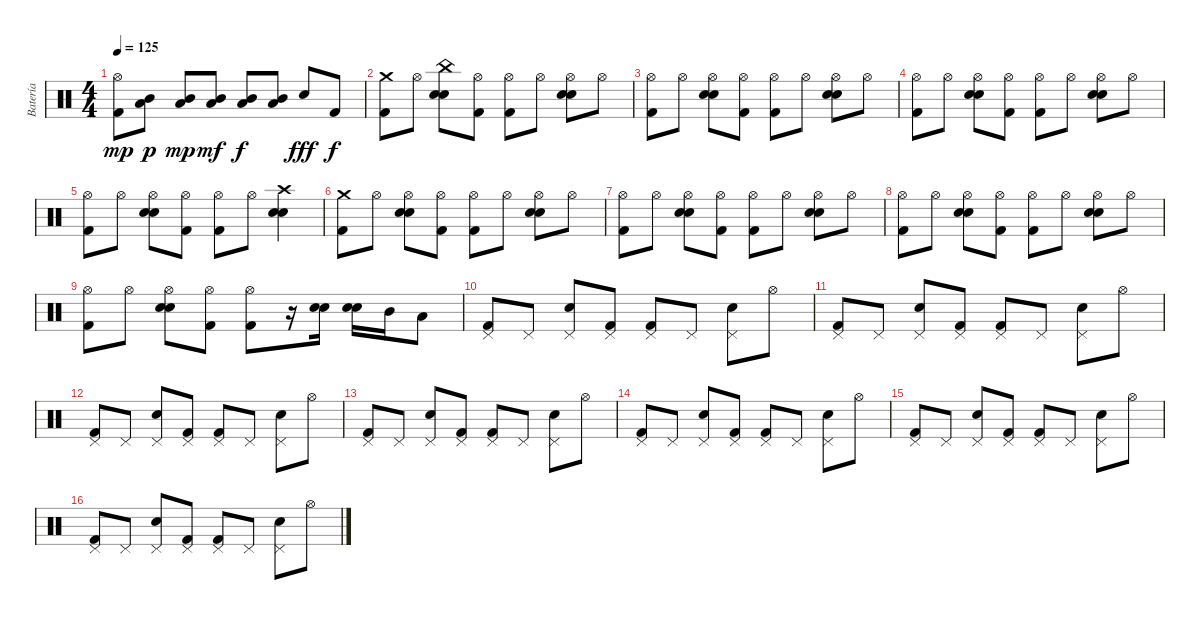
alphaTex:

\track ("Batería" "Batería") {instrument percussion}
\staff {score}
\articulation defaults
\ts (4 4)
\tempo 125
\clef neutral
\ks c
("Kick (hit) 2" "Hi-Hat (open)").8{dy mp} ("Low Tom (hit)" "Mid Tom (hit)").8{dy p} ("Low Tom (hit)" "Mid Tom (hit)").8{dy mp} ("Low Tom (hit)" "Mid Tom (hit)").8{dy mf} ("Low Tom (hit)" "Mid Tom (hit)").8{dy f} ("Low Tom (hit)" "Mid Tom (hit)").8 "Electric Snare (hit)".8{dy fff} "Kick (hit) 2".8{dy f} |
("Kick (hit) 2" "Crash medium (hit)").8 "Hi-Hat (open)".8 ("Electric Snare (hit)" "China (hit)" "Snare (hit) 2").8 ("Kick (hit) 2" "Hi-Hat (open)").8 ("Kick (hit) 2" "Hi-Hat (open)").8 "Hi-Hat (open)".8 ("Electric Snare (hit)" "Hi-Hat (open)" "Snare (hit) 2").8 "Hi-Hat (open)".8 |
("Kick (hit) 2" "Hi-Hat (open)").8 "Hi-Hat (open)".8 ("Electric Snare (hit)" "Hi-Hat (open)" "Snare (hit) 2").8 ("Kick (hit) 2" "Hi-Hat (open)").8 ("Kick (hit) 2" "Hi-Hat (open)").8 "Hi-Hat (open)".8 ("Electric Snare (hit)" "Hi-Hat (open)" "Snare (hit) 2").8 "Hi-Hat (open)".8 |
("Kick (hit) 2" "Hi-Hat (open)").8 "Hi-Hat (open)".8 ("Electric Snare (hit)" "Hi-Hat (open)" "Snare (hit) 2").8 ("Kick (hit) 2" "Hi-Hat (open)").8 ("Kick (hit) 2" "Hi-Hat (open)").8 "Hi-Hat (open)".8 ("Electric Snare (hit)" "Hi-Hat (open)" "Snare (hit) 2").8 "Hi-Hat (open)".8 |
("Kick (hit) 2" "Hi-Hat (open)").8 "Hi-Hat (open)".8 ("Electric Snare (hit)" "Hi-Hat (open)" "Snare (hit) 2").8 ("Kick (hit) 2" "Hi-Hat (open)").8 ("Kick (hit) 2" "Hi-Hat (open)").8 "Hi-Hat (open)".8 ("Snare (hit) 2" "Electric Snare (hit)" "Crash high (hit)").4 |
("Kick (hit) 2" "Crash medium (hit)").8 "Hi-Hat (open)".8 ("Electric Snare (hit)" "Hi-Hat (open)" "Snare (hit) 2").8 ("Kick (hit) 2" "Hi-Hat (open)").8 ("Kick (hit) 2" "Hi-Hat (open)").8 "Hi-Hat (open)".8 ("Electric Snare (hit)" "Hi-Hat (open)" "Snare (hit) 2").8 "Hi-Hat (open)".8 |
("Kick (hit) 2" "Hi-Hat (open)").8 "Hi-Hat (open)".8 ("Electric Snare (hit)" "Hi-Hat (open)" "Snare (hit) 2").8 ("Kick (hit) 2" "Hi-Hat (open)").8 ("Kick (hit) 2" "Hi-Hat (open)").8 "Hi-Hat (open)".8 ("Electric Snare (hit)" "Hi-Hat (open)" "Snare (hit) 2").8 "Hi-Hat (open)".8 |
("Kick (hit) 2" "Hi-Hat (open)").8 "Hi-Hat (open)".8 ("Electric Snare (hit)" "Hi-Hat (open)" "Snare (hit) 2").8 ("Kick (hit) 2" "Hi-Hat (open)").8 ("Kick (hit) 2" "Hi-Hat (open)").8 "Hi-Hat (open)".8 ("Electric Snare (hit)" "Hi-Hat (open)" "Snare (hit) 2").8 "Hi-Hat (open)".8 |
("Kick (hit) 2" "Hi-Hat (open)").8 "Hi-Hat (open)".8 ("Electric Snare (hit)" "Hi-Hat (open)" "Snare (hit) 2").8 ("Kick (hit) 2" "Hi-Hat (open)").8 ("Kick (hit) 2" "Hi-Hat (open)").8 r.16 ("Electric Snare (hit)" "Snare (hit) 2").16 ("Electric Snare (hit)" "Snare (hit) 2").16 "Mid Tom (hit)".16 "Low Tom (hit)".8 |
("Kick (hit) 2" "Pedal Hi-Hat (hit)").8 "Pedal Hi-Hat (hit)".8 ("Electric Snare (hit)" "Pedal Hi-Hat (hit)").8 ("Kick (hit) 2" "Pedal Hi-Hat (hit)").8 ("Kick (hit) 2" "Pedal Hi-Hat (hit)").8 "Pedal Hi-Hat (hit)".8 ("Electric Snare (hit)" "Pedal Hi-Hat (hit)").8 "Hi-Hat (open)".8 |
("Kick (hit) 2" "Pedal Hi-Hat (hit)").8 "Pedal Hi-Hat (hit)".8 ("Electric Snare (hit)" "Pedal Hi-Hat (hit)").8 ("Kick (hit) 2" "Pedal Hi-Hat (hit)").8 ("Kick (hit) 2" "Pedal Hi-Hat (hit)").8 "Pedal Hi-Hat (hit)".8 ("Electric Snare (hit)" "Pedal Hi-Hat (hit)").8 "Hi-Hat (open)".8 |
("Kick (hit) 2" "Pedal Hi-Hat (hit)").8 "Pedal Hi-Hat (hit)".8 ("Electric Snare (hit)" "Pedal Hi-Hat (hit)").8 ("Kick (hit) 2" "Pedal Hi-Hat (hit)").8 ("Kick (hit) 2" "Pedal Hi-Hat (hit)").8 "Pedal Hi-Hat (hit)".8 ("Electric Snare (hit)" "Pedal Hi-Hat (hit)").8 "Hi-Hat (open)".8 |
("Kick (hit) 2" "Pedal Hi-Hat (hit)").8 "Pedal Hi-Hat (hit)".8 ("Electric Snare (hit)" "Pedal Hi-Hat (hit)").8 ("Kick (hit) 2" "Pedal Hi-Hat (hit)").8 ("Kick (hit) 2" "Pedal Hi-Hat (hit)").8 "Pedal Hi-Hat (hit)".8 ("Electric Snare (hit)" "Pedal Hi-Hat (hit)").8 "Hi-Hat (open)".8 |
("Kick (hit) 2" "Pedal Hi-Hat (hit)").8 "Pedal Hi-Hat (hit)".8 ("Electric Snare (hit)" "Pedal Hi-Hat (hit)").8 ("Kick (hit) 2" "Pedal Hi-Hat (hit)").8 ("Kick (hit) 2" "Pedal Hi-Hat (hit)").8 "Pedal Hi-Hat (hit)".8 ("Electric Snare (hit)" "Pedal Hi-Hat (hit)").8 "Hi-Hat (open)".8 |
("Kick (hit) 2" "Pedal Hi-Hat (hit)").8 "Pedal Hi-Hat (hit)".8 ("Electric Snare (hit)" "Pedal Hi-Hat (hit)").8 ("Kick (hit) 2" "Pedal Hi-Hat (hit)").8 ("Kick (hit) 2" "Pedal Hi-Hat (hit)").8 "Pedal Hi-Hat (hit)".8 ("Electric Snare (hit)" "Pedal Hi-Hat (hit)").8 "Hi-Hat (open)".8 |
("Kick (hit) 2" "Pedal Hi-Hat (hit)").8 "Pedal Hi-Hat (hit)".8 ("Electric Snare (hit)" "Pedal Hi-Hat (hit)").8 ("Kick (hit) 2" "Pedal Hi-Hat (hit)").8 ("Kick (hit) 2" "Pedal Hi-Hat (hit)").8 "Pedal Hi-Hat (hit)".8 ("Electric Snare (hit)" "Pedal Hi-Hat (hit)").8 "Hi-Hat (open)".8
